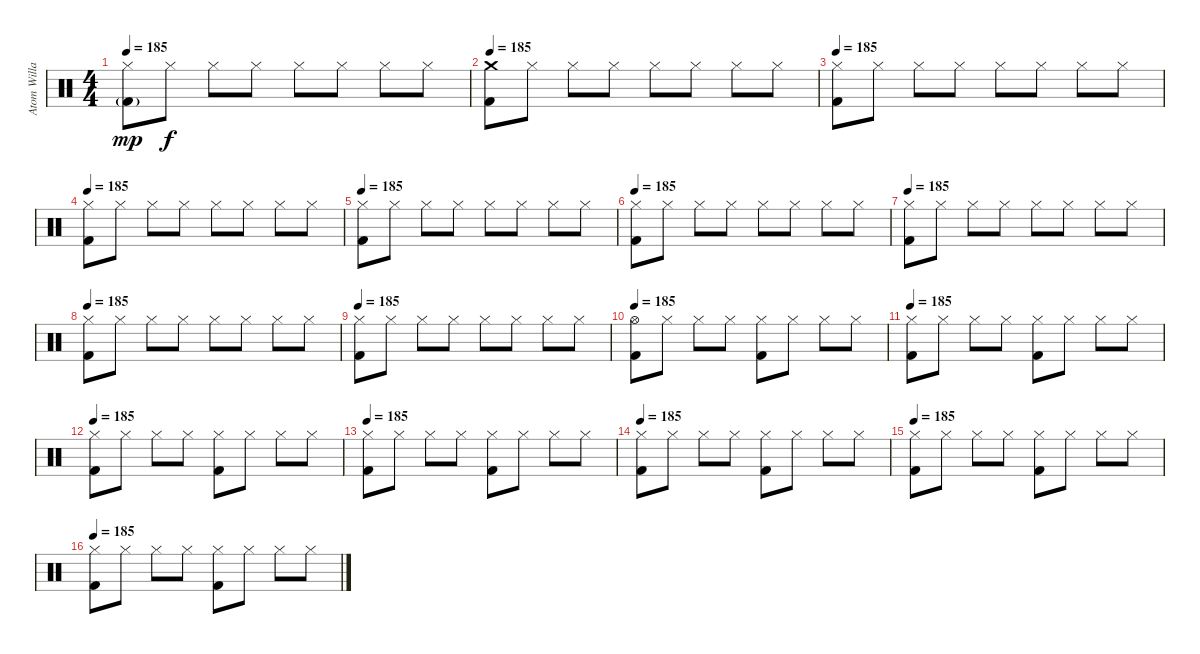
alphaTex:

\track ("Atom Willard Drums" "Atom Willa") {instrument percussion}
\staff {score}
\articulation defaults
\ts (4 4)
\tempo 185
\clef neutral
\ks c
("Hi-Hat (closed)" "Kick (hit) 2"{g}).8{dy mp} "Hi-Hat (closed)".8{dy f} "Hi-Hat (closed)".8 "Hi-Hat (closed)".8 "Hi-Hat (closed)".8 "Hi-Hat (closed)".8 "Hi-Hat (closed)".8 "Hi-Hat (closed)".8 |
\tempo 185
("Crash medium (hit)" "Kick (hit) 2").8 "Hi-Hat (closed)".8 "Hi-Hat (closed)".8 "Hi-Hat (closed)".8 "Hi-Hat (closed)".8 "Hi-Hat (closed)".8 "Hi-Hat (closed)".8 "Hi-Hat (closed)".8 |
\tempo 185
("Hi-Hat (closed)" "Kick (hit) 2").8 "Hi-Hat (closed)".8 "Hi-Hat (closed)".8 "Hi-Hat (closed)".8 "Hi-Hat (closed)".8 "Hi-Hat (closed)".8 "Hi-Hat (closed)".8 "Hi-Hat (closed)".8 |
\tempo 185
("Hi-Hat (closed)" "Kick (hit) 2").8 "Hi-Hat (closed)".8 "Hi-Hat (closed)".8 "Hi-Hat (closed)".8 "Hi-Hat (closed)".8 "Hi-Hat (closed)".8 "Hi-Hat (closed)".8 "Hi-Hat (closed)".8 |
\tempo 185
("Hi-Hat (closed)" "Kick (hit) 2").8 "Hi-Hat (closed)".8 "Hi-Hat (closed)".8 "Hi-Hat (closed)".8 "Hi-Hat (closed)".8 "Hi-Hat (closed)".8 "Hi-Hat (closed)".8 "Hi-Hat (closed)".8 |
\tempo 185
("Hi-Hat (closed)" "Kick (hit) 2").8 "Hi-Hat (closed)".8 "Hi-Hat (closed)".8 "Hi-Hat (closed)".8 "Hi-Hat (closed)".8 "Hi-Hat (closed)".8 "Hi-Hat (closed)".8 "Hi-Hat (closed)".8 |
\tempo 185
("Hi-Hat (closed)" "Kick (hit) 2").8 "Hi-Hat (closed)".8 "Hi-Hat (closed)".8 "Hi-Hat (closed)".8 "Hi-Hat (closed)".8 "Hi-Hat (closed)".8 "Hi-Hat (closed)".8 "Hi-Hat (closed)".8 |
\tempo 185
("Hi-Hat (closed)" "Kick (hit) 2").8 "Hi-Hat (closed)".8 "Hi-Hat (closed)".8 "Hi-Hat (closed)".8 "Hi-Hat (closed)".8 "Hi-Hat (closed)".8 "Hi-Hat (closed)".8 "Hi-Hat (closed)".8 |
\tempo 185
("Hi-Hat (closed)" "Kick (hit) 2").8 "Hi-Hat (closed)".8 "Hi-Hat (closed)".8 "Hi-Hat (closed)".8 "Hi-Hat (closed)".8 "Hi-Hat (closed)".8 "Hi-Hat (closed)".8 "Hi-Hat (closed)".8 |
\tempo 185
("Hi-Hat (open)" "Kick (hit) 2").8 "Hi-Hat (closed)".8 "Hi-Hat (closed)".8 "Hi-Hat (closed)".8 ("Hi-Hat (closed)" "Kick (hit) 2").8 "Hi-Hat (closed)".8 "Hi-Hat (closed)".8 "Hi-Hat (closed)".8 |
\tempo 185
("Hi-Hat (closed)" "Kick (hit) 2").8 "Hi-Hat (closed)".8 "Hi-Hat (closed)".8 "Hi-Hat (closed)".8 ("Hi-Hat (closed)" "Kick (hit) 2").8 "Hi-Hat (closed)".8 "Hi-Hat (closed)".8 "Hi-Hat (closed)".8 |
\tempo 185
("Hi-Hat (closed)" "Kick (hit) 2").8 "Hi-Hat (closed)".8 "Hi-Hat (closed)".8 "Hi-Hat (closed)".8 ("Hi-Hat (closed)" "Kick (hit) 2").8 "Hi-Hat (closed)".8 "Hi-Hat (closed)".8 "Hi-Hat (closed)".8 |
\tempo 185
("Hi-Hat (closed)" "Kick (hit) 2").8 "Hi-Hat (closed)".8 "Hi-Hat (closed)".8 "Hi-Hat (closed)".8 ("Hi-Hat (closed)" "Kick (hit) 2").8 "Hi-Hat (closed)".8 "Hi-Hat (closed)".8 "Hi-Hat (closed)".8 |
\tempo 185
("Hi-Hat (closed)" "Kick (hit) 2").8 "Hi-Hat (closed)".8 "Hi-Hat (closed)".8 "Hi-Hat (closed)".8 ("Hi-Hat (closed)" "Kick (hit) 2").8 "Hi-Hat (closed)".8 "Hi-Hat (closed)".8 "Hi-Hat (closed)".8 |
\tempo 185
("Hi-Hat (closed)" "Kick (hit) 2").8 "Hi-Hat (closed)".8 "Hi-Hat (closed)".8 "Hi-Hat (closed)".8 ("Hi-Hat (closed)" "Kick (hit) 2").8 "Hi-Hat (closed)".8 "Hi-Hat (closed)".8 "Hi-Hat (closed)".8 |
\tempo 185
("Hi-Hat (closed)" "Kick (hit) 2").8 "Hi-Hat (closed)".8 "Hi-Hat (closed)".8 "Hi-Hat (closed)".8 ("Hi-Hat (closed)" "Kick (hit) 2").8 "Hi-Hat (closed)".8 "Hi-Hat (closed)".8 "Hi-Hat (closed)".8
